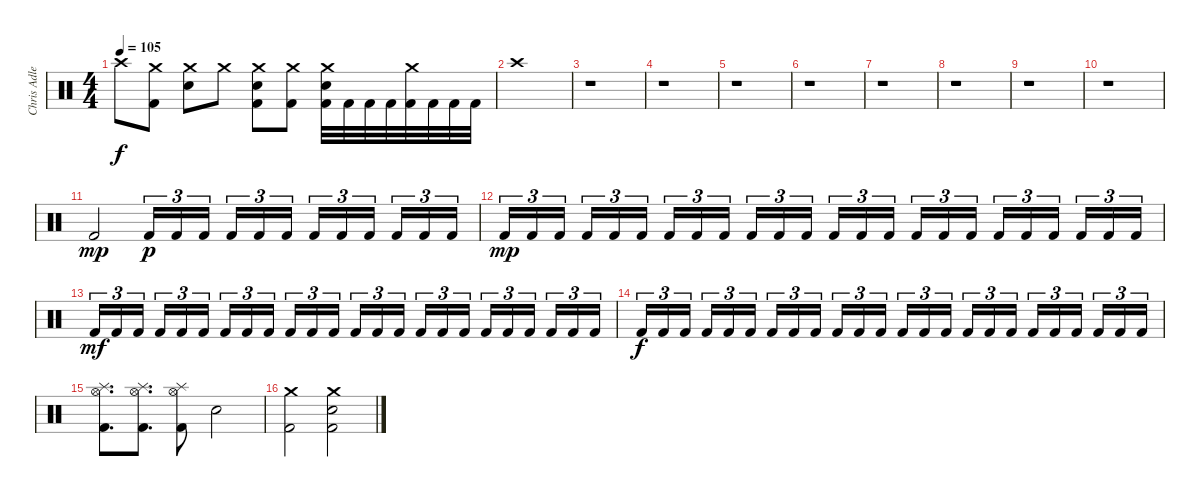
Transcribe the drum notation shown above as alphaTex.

\track ("Chris Adler" "Chris Adle") {instrument percussion}
\staff {score}
\articulation defaults
\ts (4 4)
\tempo 105
\clef neutral
\ks c "Crash high (hit)".8{dy f}
("Crash medium (hit)" "Kick (hit) 2").8 ("Crash medium (hit)" "Electric Snare (hit)").8 "Crash medium (hit)".8 ("Crash medium (hit)" "Electric Snare (hit)" "Kick (hit) 2").8 ("Crash medium (hit)" "Kick (hit) 2").8 ("Crash medium (hit)" "Electric Snare (hit)" "Kick (hit) 2").32 "Kick (hit) 2".32 "Kick (hit) 2".32 "Kick (hit) 2".32 ("Crash medium (hit)" "Kick (hit) 2").32 "Kick (hit) 2".32 "Kick (hit) 2".32 "Kick (hit) 2".32 |
"Crash high (hit)".1 |
r.1 |
r.1 |
r.1 |
r.1 |
r.1 |
r.1 |
r.1 |
r.1 |
"Kick (hit) 2".2{dy mp} "Kick (hit) 2".16{tu (3 2) dy p} "Kick (hit) 2".16{tu (3 2)} "Kick (hit) 2".16{tu (3 2) beam splitsecondary} "Kick (hit) 2".16{tu (3 2)} "Kick (hit) 2".16{tu (3 2)} "Kick (hit) 2".16{tu (3 2)} "Kick (hit) 2".16{tu (3 2)} "Kick (hit) 2".16{tu (3 2)} "Kick (hit) 2".16{tu (3 2) beam splitsecondary} "Kick (hit) 2".16{tu (3 2)} "Kick (hit) 2".16{tu (3 2)} "Kick (hit) 2".16{tu (3 2)} |
"Kick (hit) 2".16{tu (3 2) dy mp} "Kick (hit) 2".16{tu (3 2)} "Kick (hit) 2".16{tu (3 2) beam splitsecondary} "Kick (hit) 2".16{tu (3 2)} "Kick (hit) 2".16{tu (3 2)} "Kick (hit) 2".16{tu (3 2)} "Kick (hit) 2".16{tu (3 2)} "Kick (hit) 2".16{tu (3 2)} "Kick (hit) 2".16{tu (3 2) beam splitsecondary} "Kick (hit) 2".16{tu (3 2)} "Kick (hit) 2".16{tu (3 2)} "Kick (hit) 2".16{tu (3 2)} "Kick (hit) 2".16{tu (3 2)} "Kick (hit) 2".16{tu (3 2)} "Kick (hit) 2".16{tu (3 2) beam splitsecondary} "Kick (hit) 2".16{tu (3 2)} "Kick (hit) 2".16{tu (3 2)} "Kick (hit) 2".16{tu (3 2)} "Kick (hit) 2".16{tu (3 2)} "Kick (hit) 2".16{tu (3 2)} "Kick (hit) 2".16{tu (3 2) beam splitsecondary} "Kick (hit) 2".16{tu (3 2)} "Kick (hit) 2".16{tu (3 2)} "Kick (hit) 2".16{tu (3 2)} |
"Kick (hit) 2".16{tu (3 2) dy mf} "Kick (hit) 2".16{tu (3 2)} "Kick (hit) 2".16{tu (3 2) beam splitsecondary} "Kick (hit) 2".16{tu (3 2)} "Kick (hit) 2".16{tu (3 2)} "Kick (hit) 2".16{tu (3 2)} "Kick (hit) 2".16{tu (3 2)} "Kick (hit) 2".16{tu (3 2)} "Kick (hit) 2".16{tu (3 2) beam splitsecondary} "Kick (hit) 2".16{tu (3 2)} "Kick (hit) 2".16{tu (3 2)} "Kick (hit) 2".16{tu (3 2)} "Kick (hit) 2".16{tu (3 2)} "Kick (hit) 2".16{tu (3 2)} "Kick (hit) 2".16{tu (3 2) beam splitsecondary} "Kick (hit) 2".16{tu (3 2)} "Kick (hit) 2".16{tu (3 2)} "Kick (hit) 2".16{tu (3 2)} "Kick (hit) 2".16{tu (3 2)} "Kick (hit) 2".16{tu (3 2)} "Kick (hit) 2".16{tu (3 2) beam splitsecondary} "Kick (hit) 2".16{tu (3 2)} "Kick (hit) 2".16{tu (3 2)} "Kick (hit) 2".16{tu (3 2)} |
"Kick (hit) 2".16{tu (3 2) dy f} "Kick (hit) 2".16{tu (3 2)} "Kick (hit) 2".16{tu (3 2) beam splitsecondary} "Kick (hit) 2".16{tu (3 2)} "Kick (hit) 2".16{tu (3 2)} "Kick (hit) 2".16{tu (3 2)} "Kick (hit) 2".16{tu (3 2)} "Kick (hit) 2".16{tu (3 2)} "Kick (hit) 2".16{tu (3 2) beam splitsecondary} "Kick (hit) 2".16{tu (3 2)} "Kick (hit) 2".16{tu (3 2)} "Kick (hit) 2".16{tu (3 2)} "Kick (hit) 2".16{tu (3 2)} "Kick (hit) 2".16{tu (3 2)} "Kick (hit) 2".16{tu (3 2) beam splitsecondary} "Kick (hit) 2".16{tu (3 2)} "Kick (hit) 2".16{tu (3 2)} "Kick (hit) 2".16{tu (3 2)} "Kick (hit) 2".16{tu (3 2)} "Kick (hit) 2".16{tu (3 2)} "Kick (hit) 2".16{tu (3 2) beam splitsecondary} "Kick (hit) 2".16{tu (3 2)} "Kick (hit) 2".16{tu (3 2)} "Kick (hit) 2".16{tu (3 2)} |
("Splash (hit)" "Hi-Hat (open)" "Kick (hit) 2").8{d} ("Splash (hit)" "Hi-Hat (open)" "Kick (hit) 2").8{d} ("Splash (hit)" "Hi-Hat (open)" "Kick (hit) 2").8 "Electric Snare (hit)".2 |
("Crash medium (hit)" "Kick (hit) 2").2 ("Crash medium (hit)" "Electric Snare (hit)" "Kick (hit) 2").2
